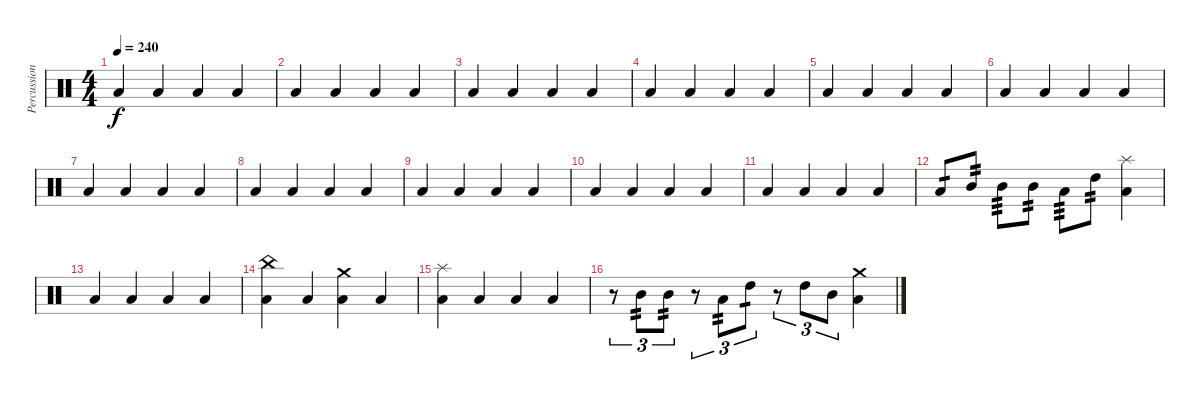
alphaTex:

\track ("Percussion" "Percussion") {instrument percussion}
\staff {score}
\articulation defaults
\ts (4 4)
\tempo 240
\clef neutral
\ks c "Low Tom (hit)".4{dy f} "Low Tom (hit)".4 "Low Tom (hit)".4 "Low Tom (hit)".4
|
"Low Tom (hit)".4 "Low Tom (hit)".4 "Low Tom (hit)".4 "Low Tom (hit)".4 |
"Low Tom (hit)".4 "Low Tom (hit)".4 "Low Tom (hit)".4 "Low Tom (hit)".4 |
"Low Tom (hit)".4 "Low Tom (hit)".4 "Low Tom (hit)".4 "Low Tom (hit)".4 |
"Low Tom (hit)".4 "Low Tom (hit)".4 "Low Tom (hit)".4 "Low Tom (hit)".4 |
"Low Tom (hit)".4 "Low Tom (hit)".4 "Low Tom (hit)".4 "Low Tom (hit)".4 |
"Low Tom (hit)".4 "Low Tom (hit)".4 "Low Tom (hit)".4 "Low Tom (hit)".4 |
"Low Tom (hit)".4 "Low Tom (hit)".4 "Low Tom (hit)".4 "Low Tom (hit)".4 |
"Low Tom (hit)".4 "Low Tom (hit)".4 "Low Tom (hit)".4 "Low Tom (hit)".4 |
"Low Tom (hit)".4 "Low Tom (hit)".4 "Low Tom (hit)".4 "Low Tom (hit)".4 |
"Low Tom (hit)".4 "Low Tom (hit)".4 "Low Tom (hit)".4 "Low Tom (hit)".4 |
"Low Tom (hit)".8{tp 1} "Mid Tom (hit)".8{tp 2} "Mid Tom (hit)".8{tp 3} "Mid Tom (hit)".8{tp 2} "Low Tom (hit)".8{tp 3} "High Tom (hit)".8{tp 2} ("Splash (hit)" "Low Tom (hit)").4 |
"Low Tom (hit)".4 "Low Tom (hit)".4 "Low Tom (hit)".4 "Low Tom (hit)".4 |
("China (hit)" "Low Tom (hit)").4 "Low Tom (hit)".4 ("Crash medium (hit)" "Low Tom (hit)").4 "Low Tom (hit)".4 |
("Splash (hit)" "Low Tom (hit)").4 "Low Tom (hit)".4 "Low Tom (hit)".4 "Low Tom (hit)".4 |
r.8{tu (3 2)} "Mid Tom (hit)".8{tu (3 2) tp 2} "Mid Tom (hit)".8{tu (3 2) tp 2} r.8{tu (3 2)} "Low Tom (hit)".8{tu (3 2) tp 2} "High Tom (hit)".8{tu (3 2) tp 1} r.8{tu (3 2)} "High Tom (hit)".8{tu (3 2)} "Mid Tom (hit)".8{tu (3 2)} ("Crash medium (hit)" "Low Tom (hit)").4
